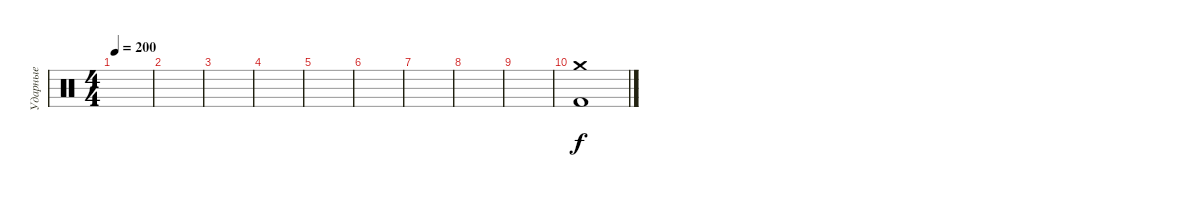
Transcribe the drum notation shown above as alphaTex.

\track ("Ударные" "Ударные") {instrument percussion}
\staff {score}
\articulation defaults
\ts (4 4)
\tempo 200
\clef neutral
\ks c
|
|
|
|
|
|
|
|
|
("Crash medium (hit)" "Kick (hit) 2").1
